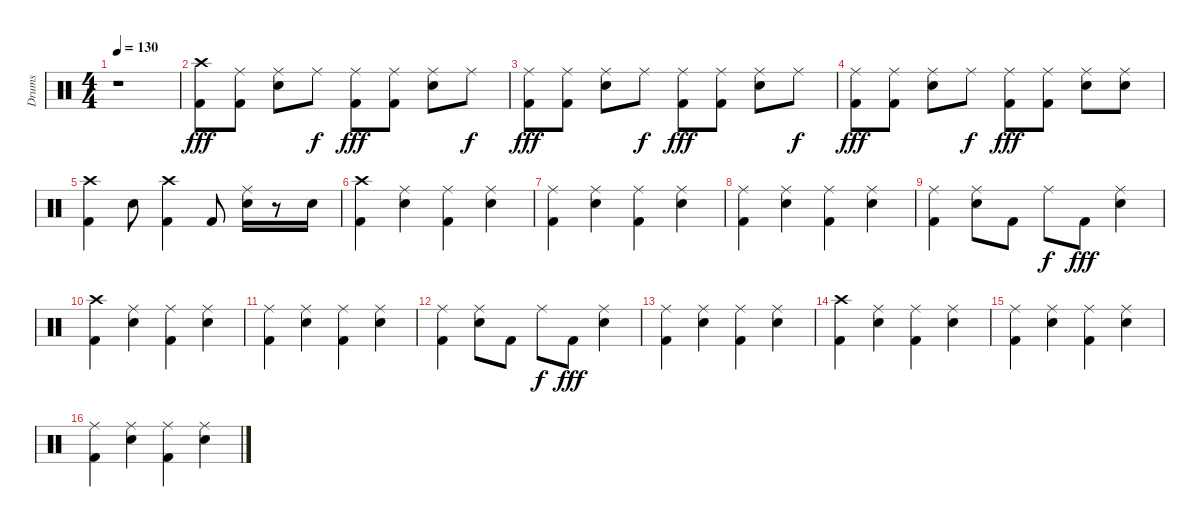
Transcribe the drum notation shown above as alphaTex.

\track ("Drums" "Drums") {instrument percussion}
\staff {score}
\articulation defaults
\ts (4 4)
\tempo 130
\clef neutral
\ks c
r.1{dy fff} |
("Crash high (hit)" "Kick (hit) 2").8 ("Kick (hit) 2" "Ride (middle)").8 ("Ride (middle)" "Snare (hit) 2").8 "Ride (middle)".8{dy f} ("Kick (hit) 2" "Ride (middle)").8{dy fff} ("Kick (hit) 2" "Ride (middle)").8 ("Ride (middle)" "Snare (hit) 2").8 "Ride (middle)".8{dy f} |
("Kick (hit) 2" "Ride (middle)").8{dy fff} ("Kick (hit) 2" "Ride (middle)").8 ("Ride (middle)" "Snare (hit) 2").8 "Ride (middle)".8{dy f} ("Kick (hit) 2" "Ride (middle)").8{dy fff} ("Kick (hit) 2" "Ride (middle)").8 ("Ride (middle)" "Snare (hit) 2").8 "Ride (middle)".8{dy f} |
("Kick (hit) 2" "Ride (middle)").8{dy fff} ("Kick (hit) 2" "Ride (middle)").8 ("Ride (middle)" "Snare (hit) 2").8 "Ride (middle)".8{dy f} ("Kick (hit) 2" "Ride (middle)").8{dy fff} ("Kick (hit) 2" "Ride (middle)").8 ("Ride (middle)" "Snare (hit) 2").8 ("Ride (middle)" "Snare (hit) 2").8 |
("Crash high (hit)" "Kick (hit) 2").4 "Snare (hit) 2".8 ("Crash high (hit)" "Kick (hit) 2").4 "Kick (hit) 2".8 ("Ride (middle)" "Snare (hit) 2").16 r.8 "Snare (hit) 2".16 |
("Crash high (hit)" "Kick (hit) 2").4 ("Ride (middle)" "Snare (hit) 2").4 ("Kick (hit) 2" "Ride (middle)").4 ("Ride (middle)" "Snare (hit) 2").4 |
("Kick (hit) 2" "Ride (middle)").4 ("Ride (middle)" "Snare (hit) 2").4 ("Kick (hit) 2" "Ride (middle)").4 ("Ride (middle)" "Snare (hit) 2").4 |
("Kick (hit) 2" "Ride (middle)").4 ("Ride (middle)" "Snare (hit) 2").4 ("Kick (hit) 2" "Ride (middle)").4 ("Ride (middle)" "Snare (hit) 2").4 |
("Kick (hit) 2" "Ride (middle)").4 ("Ride (middle)" "Snare (hit) 2").8 "Kick (hit) 2".8 "Ride (middle)".8{dy f} "Kick (hit) 2".8{dy fff} ("Ride (middle)" "Snare (hit) 2").4 |
("Crash high (hit)" "Kick (hit) 2").4 ("Ride (middle)" "Snare (hit) 2").4 ("Kick (hit) 2" "Ride (middle)").4 ("Ride (middle)" "Snare (hit) 2").4 |
("Kick (hit) 2" "Ride (middle)").4 ("Ride (middle)" "Snare (hit) 2").4 ("Kick (hit) 2" "Ride (middle)").4 ("Ride (middle)" "Snare (hit) 2").4 |
("Kick (hit) 2" "Ride (middle)").4 ("Ride (middle)" "Snare (hit) 2").8 "Kick (hit) 2".8 "Ride (middle)".8{dy f} "Kick (hit) 2".8{dy fff} ("Ride (middle)" "Snare (hit) 2").4 |
("Kick (hit) 2" "Ride (middle)").4 ("Ride (middle)" "Snare (hit) 2").4 ("Kick (hit) 2" "Ride (middle)").4 ("Ride (middle)" "Snare (hit) 2").4 |
("Crash high (hit)" "Kick (hit) 2").4 ("Ride (middle)" "Snare (hit) 2").4 ("Kick (hit) 2" "Ride (middle)").4 ("Ride (middle)" "Snare (hit) 2").4 |
("Kick (hit) 2" "Ride (middle)").4 ("Ride (middle)" "Snare (hit) 2").4 ("Kick (hit) 2" "Ride (middle)").4 ("Ride (middle)" "Snare (hit) 2").4 |
("Kick (hit) 2" "Ride (middle)").4 ("Ride (middle)" "Snare (hit) 2").4 ("Kick (hit) 2" "Ride (middle)").4 ("Ride (middle)" "Snare (hit) 2").4
